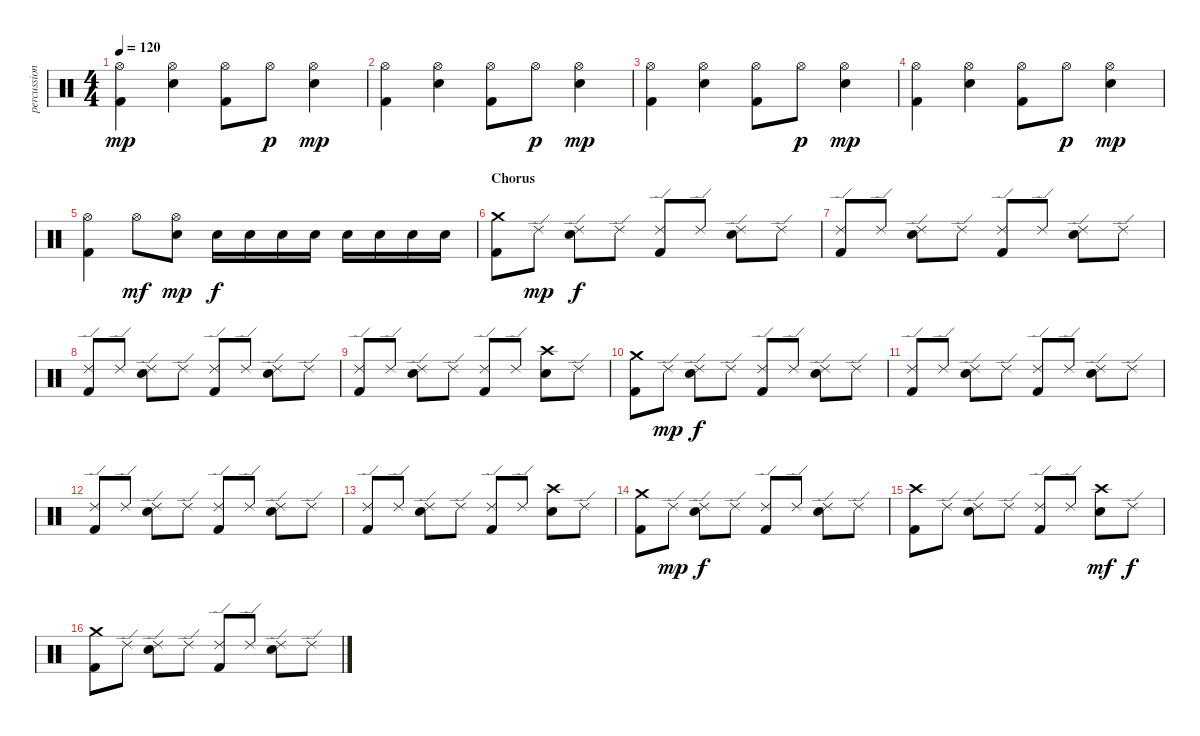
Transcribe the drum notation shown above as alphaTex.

\track ("percussion" "percussion") {instrument percussion}
\staff {score}
\articulation defaults
\ts (4 4)
\tempo 120
\clef neutral
\ks c
("Hi-Hat (open)" "Kick (hit) 2").4{dy mp} ("Hi-Hat (open)" "Electric Snare (hit)").4 ("Hi-Hat (open)" "Kick (hit) 2").8 "Hi-Hat (open)".8{dy p} ("Hi-Hat (open)" "Electric Snare (hit)").4{dy mp} |
("Hi-Hat (open)" "Kick (hit) 2").4 ("Hi-Hat (open)" "Electric Snare (hit)").4 ("Hi-Hat (open)" "Kick (hit) 2").8 "Hi-Hat (open)".8{dy p} ("Hi-Hat (open)" "Electric Snare (hit)").4{dy mp} |
("Hi-Hat (open)" "Kick (hit) 2").4 ("Hi-Hat (open)" "Electric Snare (hit)").4 ("Hi-Hat (open)" "Kick (hit) 2").8 "Hi-Hat (open)".8{dy p} ("Hi-Hat (open)" "Electric Snare (hit)").4{dy mp} |
("Hi-Hat (open)" "Kick (hit) 2").4 ("Hi-Hat (open)" "Electric Snare (hit)").4 ("Hi-Hat (open)" "Kick (hit) 2").8 "Hi-Hat (open)".8{dy p} ("Hi-Hat (open)" "Electric Snare (hit)").4{dy mp} |
("Hi-Hat (open)" "Kick (hit) 2").4 "Hi-Hat (open)".8{dy mf} ("Hi-Hat (open)" "Electric Snare (hit)").8{dy mp} "Electric Snare (hit)".16{dy f} "Electric Snare (hit)".16 "Electric Snare (hit)".16 "Electric Snare (hit)".16 "Electric Snare (hit)".16 "Electric Snare (hit)".16 "Electric Snare (hit)".16 "Electric Snare (hit)".16 |
\section ("" "Chorus")
("Crash medium (hit)" "Kick (hit) 2").8 "Ride (edge) 2".8{dy mp} ("Ride (edge) 2" "Electric Snare (hit)").8{dy f} "Ride (edge) 2".8 ("Ride (edge) 2" "Kick (hit) 2").8 "Ride (edge) 2".8 ("Ride (edge) 2" "Electric Snare (hit)").8 "Ride (edge) 2".8 |
("Ride (edge) 2" "Kick (hit) 2").8 "Ride (edge) 2".8 ("Ride (edge) 2" "Electric Snare (hit)").8 "Ride (edge) 2".8 ("Ride (edge) 2" "Kick (hit) 2").8 "Ride (edge) 2".8 ("Ride (edge) 2" "Electric Snare (hit)").8 "Ride (edge) 2".8 |
("Ride (edge) 2" "Kick (hit) 2").8 "Ride (edge) 2".8 ("Ride (edge) 2" "Electric Snare (hit)").8 "Ride (edge) 2".8 ("Ride (edge) 2" "Kick (hit) 2").8 "Ride (edge) 2".8 ("Ride (edge) 2" "Electric Snare (hit)").8 "Ride (edge) 2".8 |
("Ride (edge) 2" "Kick (hit) 2").8 "Ride (edge) 2".8 ("Ride (edge) 2" "Electric Snare (hit)").8 "Ride (edge) 2".8 ("Ride (edge) 2" "Kick (hit) 2").8 "Ride (edge) 2".8 ("Crash high (hit)" "Electric Snare (hit)").8 "Ride (edge) 2".8 |
("Crash medium (hit)" "Kick (hit) 2").8 "Ride (edge) 2".8{dy mp} ("Ride (edge) 2" "Electric Snare (hit)").8{dy f} "Ride (edge) 2".8 ("Ride (edge) 2" "Kick (hit) 2").8 "Ride (edge) 2".8 ("Ride (edge) 2" "Electric Snare (hit)").8 "Ride (edge) 2".8 |
("Ride (edge) 2" "Kick (hit) 2").8 "Ride (edge) 2".8 ("Ride (edge) 2" "Electric Snare (hit)").8 "Ride (edge) 2".8 ("Ride (edge) 2" "Kick (hit) 2").8 "Ride (edge) 2".8 ("Ride (edge) 2" "Electric Snare (hit)").8 "Ride (edge) 2".8 |
("Ride (edge) 2" "Kick (hit) 2").8 "Ride (edge) 2".8 ("Ride (edge) 2" "Electric Snare (hit)").8 "Ride (edge) 2".8 ("Ride (edge) 2" "Kick (hit) 2").8 "Ride (edge) 2".8 ("Ride (edge) 2" "Electric Snare (hit)").8 "Ride (edge) 2".8 |
("Ride (edge) 2" "Kick (hit) 2").8 "Ride (edge) 2".8 ("Ride (edge) 2" "Electric Snare (hit)").8 "Ride (edge) 2".8 ("Ride (edge) 2" "Kick (hit) 2").8 "Ride (edge) 2".8 ("Crash high (hit)" "Electric Snare (hit)").8 "Ride (edge) 2".8 |
("Crash medium (hit)" "Kick (hit) 2").8 "Ride (edge) 2".8{dy mp} ("Ride (edge) 2" "Electric Snare (hit)").8{dy f} "Ride (edge) 2".8 ("Ride (edge) 2" "Kick (hit) 2").8 "Ride (edge) 2".8 ("Ride (edge) 2" "Electric Snare (hit)").8 "Ride (edge) 2".8 |
("Crash high (hit)" "Kick (hit) 2").8 "Ride (edge) 2".8 ("Ride (edge) 2" "Electric Snare (hit)").8 "Ride (edge) 2".8 ("Ride (edge) 2" "Kick (hit) 2").8 "Ride (edge) 2".8 ("Crash high (hit)" "Electric Snare (hit)").8{dy mf} "Ride (edge) 2".8{dy f} |
("Crash medium (hit)" "Kick (hit) 2").8 "Ride (edge) 2".8 ("Ride (edge) 2" "Electric Snare (hit)").8 "Ride (edge) 2".8 ("Ride (edge) 2" "Kick (hit) 2").8 "Ride (edge) 2".8 ("Ride (edge) 2" "Electric Snare (hit)").8 "Ride (edge) 2".8
